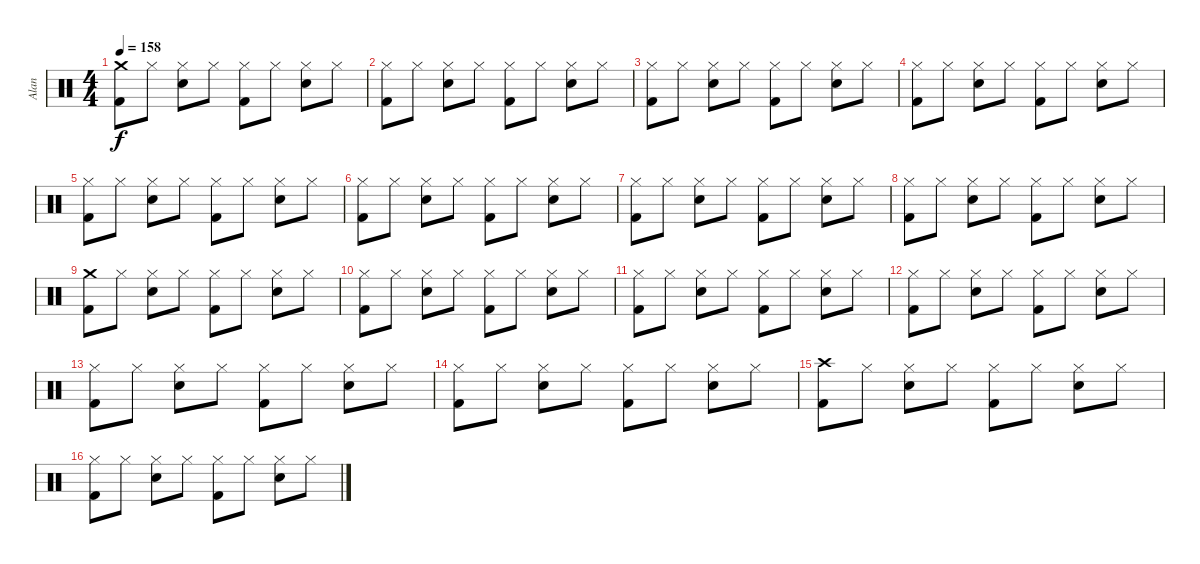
\track ("Alan" "Alan") {instrument percussion}
\staff {score}
\articulation defaults
\ts (4 4)
\tempo 158
\clef neutral
\ks c
("Kick (hit) 2" "Crash medium (hit)").8{dy f} "Hi-Hat (closed)".8 ("Hi-Hat (closed)" "Electric Snare (hit)").8 "Hi-Hat (closed)".8 ("Kick (hit) 2" "Hi-Hat (closed)").8 "Hi-Hat (closed)".8 ("Hi-Hat (closed)" "Electric Snare (hit)").8 "Hi-Hat (closed)".8 |
("Kick (hit) 2" "Hi-Hat (closed)").8 "Hi-Hat (closed)".8 ("Hi-Hat (closed)" "Electric Snare (hit)").8 "Hi-Hat (closed)".8 ("Kick (hit) 2" "Hi-Hat (closed)").8 "Hi-Hat (closed)".8 ("Hi-Hat (closed)" "Electric Snare (hit)").8 "Hi-Hat (closed)".8 |
("Kick (hit) 2" "Hi-Hat (closed)").8 "Hi-Hat (closed)".8 ("Hi-Hat (closed)" "Electric Snare (hit)").8 "Hi-Hat (closed)".8 ("Kick (hit) 2" "Hi-Hat (closed)").8 "Hi-Hat (closed)".8 ("Hi-Hat (closed)" "Electric Snare (hit)").8 "Hi-Hat (closed)".8 |
("Kick (hit) 2" "Hi-Hat (closed)").8 "Hi-Hat (closed)".8 ("Hi-Hat (closed)" "Electric Snare (hit)").8 "Hi-Hat (closed)".8 ("Kick (hit) 2" "Hi-Hat (closed)").8 "Hi-Hat (closed)".8 ("Hi-Hat (closed)" "Electric Snare (hit)").8 "Hi-Hat (closed)".8 |
("Kick (hit) 2" "Hi-Hat (closed)").8 "Hi-Hat (closed)".8 ("Hi-Hat (closed)" "Electric Snare (hit)").8 "Hi-Hat (closed)".8 ("Kick (hit) 2" "Hi-Hat (closed)").8 "Hi-Hat (closed)".8 ("Hi-Hat (closed)" "Electric Snare (hit)").8 "Hi-Hat (closed)".8 |
("Kick (hit) 2" "Hi-Hat (closed)").8 "Hi-Hat (closed)".8 ("Hi-Hat (closed)" "Electric Snare (hit)").8 "Hi-Hat (closed)".8 ("Kick (hit) 2" "Hi-Hat (closed)").8 "Hi-Hat (closed)".8 ("Hi-Hat (closed)" "Electric Snare (hit)").8 "Hi-Hat (closed)".8 |
("Kick (hit) 2" "Hi-Hat (closed)").8 "Hi-Hat (closed)".8 ("Hi-Hat (closed)" "Electric Snare (hit)").8 "Hi-Hat (closed)".8 ("Kick (hit) 2" "Hi-Hat (closed)").8 "Hi-Hat (closed)".8 ("Hi-Hat (closed)" "Electric Snare (hit)").8 "Hi-Hat (closed)".8 |
("Kick (hit) 2" "Hi-Hat (closed)").8 "Hi-Hat (closed)".8 ("Hi-Hat (closed)" "Electric Snare (hit)").8 "Hi-Hat (closed)".8 ("Kick (hit) 2" "Hi-Hat (closed)").8 "Hi-Hat (closed)".8 ("Hi-Hat (closed)" "Electric Snare (hit)").8 "Hi-Hat (closed)".8 |
("Crash medium (hit)" "Kick (hit) 2").8 "Hi-Hat (closed)".8 ("Hi-Hat (closed)" "Electric Snare (hit)").8 "Hi-Hat (closed)".8 ("Kick (hit) 2" "Hi-Hat (closed)").8 "Hi-Hat (closed)".8 ("Hi-Hat (closed)" "Electric Snare (hit)").8 "Hi-Hat (closed)".8 |
("Kick (hit) 2" "Hi-Hat (closed)").8 "Hi-Hat (closed)".8 ("Hi-Hat (closed)" "Electric Snare (hit)").8 "Hi-Hat (closed)".8 ("Kick (hit) 2" "Hi-Hat (closed)").8 "Hi-Hat (closed)".8 ("Hi-Hat (closed)" "Electric Snare (hit)").8 "Hi-Hat (closed)".8 |
("Kick (hit) 2" "Hi-Hat (closed)").8 "Hi-Hat (closed)".8 ("Hi-Hat (closed)" "Electric Snare (hit)").8 "Hi-Hat (closed)".8 ("Kick (hit) 2" "Hi-Hat (closed)").8 "Hi-Hat (closed)".8 ("Hi-Hat (closed)" "Electric Snare (hit)").8 "Hi-Hat (closed)".8 |
("Kick (hit) 2" "Hi-Hat (closed)").8 "Hi-Hat (closed)".8 ("Hi-Hat (closed)" "Electric Snare (hit)").8 "Hi-Hat (closed)".8 ("Kick (hit) 2" "Hi-Hat (closed)").8 "Hi-Hat (closed)".8 ("Hi-Hat (closed)" "Electric Snare (hit)").8 "Hi-Hat (closed)".8 |
("Kick (hit) 2" "Hi-Hat (closed)").8 "Hi-Hat (closed)".8 ("Hi-Hat (closed)" "Electric Snare (hit)").8 "Hi-Hat (closed)".8 ("Kick (hit) 2" "Hi-Hat (closed)").8 "Hi-Hat (closed)".8 ("Hi-Hat (closed)" "Electric Snare (hit)").8 "Hi-Hat (closed)".8 |
("Kick (hit) 2" "Hi-Hat (closed)").8 "Hi-Hat (closed)".8 ("Hi-Hat (closed)" "Electric Snare (hit)").8 "Hi-Hat (closed)".8 ("Kick (hit) 2" "Hi-Hat (closed)").8 "Hi-Hat (closed)".8 ("Hi-Hat (closed)" "Electric Snare (hit)").8 "Hi-Hat (closed)".8 |
("Crash high (hit)" "Kick (hit) 2").8 "Hi-Hat (closed)".8 ("Hi-Hat (closed)" "Electric Snare (hit)").8 "Hi-Hat (closed)".8 ("Kick (hit) 2" "Hi-Hat (closed)").8 "Hi-Hat (closed)".8 ("Hi-Hat (closed)" "Electric Snare (hit)").8 "Hi-Hat (closed)".8 |
("Kick (hit) 2" "Hi-Hat (closed)").8 "Hi-Hat (closed)".8 ("Hi-Hat (closed)" "Electric Snare (hit)").8 "Hi-Hat (closed)".8 ("Kick (hit) 2" "Hi-Hat (closed)").8 "Hi-Hat (closed)".8 ("Hi-Hat (closed)" "Electric Snare (hit)").8 "Hi-Hat (closed)".8
